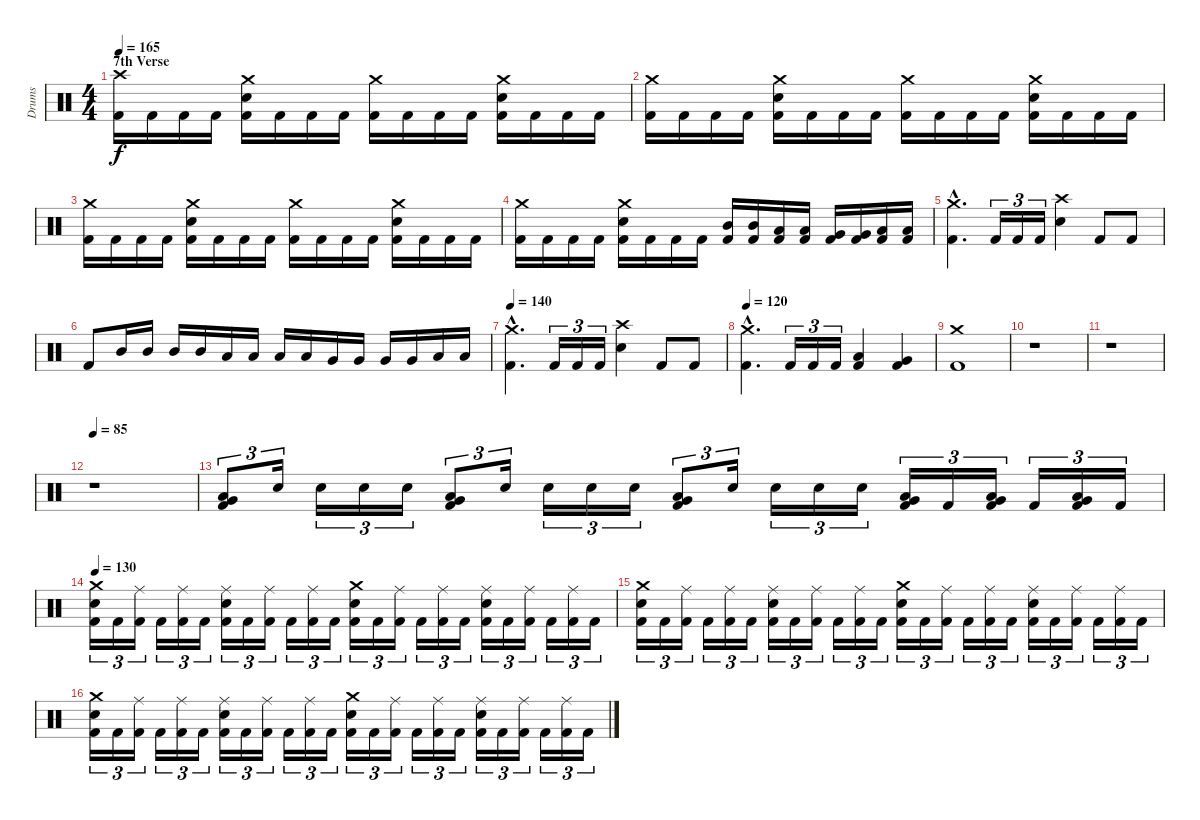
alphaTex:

\track ("Drums" "Drums") {instrument percussion}
\staff {score}
\articulation defaults
\ts (4 4)
\section ("" "7th Verse")
\tempo 165
\clef neutral
\ks c
("Kick (hit) 2" "Crash high (hit)").16{dy f} "Kick (hit) 2".16 "Kick (hit) 2".16 "Kick (hit) 2".16 ("Kick (hit) 2" "Electric Snare (hit)" "Crash medium (hit)").16 "Kick (hit) 2".16 "Kick (hit) 2".16 "Kick (hit) 2".16 ("Kick (hit) 2" "Crash medium (hit)").16 "Kick (hit) 2".16 "Kick (hit) 2".16 "Kick (hit) 2".16 ("Kick (hit) 2" "Electric Snare (hit)" "Crash medium (hit)").16 "Kick (hit) 2".16 "Kick (hit) 2".16 "Kick (hit) 2".16 |
("Kick (hit) 2" "Crash medium (hit)").16 "Kick (hit) 2".16 "Kick (hit) 2".16 "Kick (hit) 2".16 ("Kick (hit) 2" "Electric Snare (hit)" "Crash medium (hit)").16 "Kick (hit) 2".16 "Kick (hit) 2".16 "Kick (hit) 2".16 ("Kick (hit) 2" "Crash medium (hit)").16 "Kick (hit) 2".16 "Kick (hit) 2".16 "Kick (hit) 2".16 ("Kick (hit) 2" "Electric Snare (hit)" "Crash medium (hit)").16 "Kick (hit) 2".16 "Kick (hit) 2".16 "Kick (hit) 2".16 |
("Kick (hit) 2" "Crash medium (hit)").16 "Kick (hit) 2".16 "Kick (hit) 2".16 "Kick (hit) 2".16 ("Kick (hit) 2" "Electric Snare (hit)" "Crash medium (hit)").16 "Kick (hit) 2".16 "Kick (hit) 2".16 "Kick (hit) 2".16 ("Kick (hit) 2" "Crash medium (hit)").16 "Kick (hit) 2".16 "Kick (hit) 2".16 "Kick (hit) 2".16 ("Kick (hit) 2" "Electric Snare (hit)" "Crash medium (hit)").16 "Kick (hit) 2".16 "Kick (hit) 2".16 "Kick (hit) 2".16 |
("Kick (hit) 2" "Crash medium (hit)").16 "Kick (hit) 2".16 "Kick (hit) 2".16 "Kick (hit) 2".16 ("Kick (hit) 2" "Electric Snare (hit)" "Crash medium (hit)").16 "Kick (hit) 2".16 "Kick (hit) 2".16 "Kick (hit) 2".16 ("Kick (hit) 2" "Mid Tom (hit)").16 ("Kick (hit) 2" "Mid Tom (hit)").16 ("Kick (hit) 2" "Low Tom (hit)").16 ("Kick (hit) 2" "Low Tom (hit)").16 ("Kick (hit) 2" "Very Low Tom (hit)").16 ("Kick (hit) 2" "Very Low Tom (hit)").16 ("Kick (hit) 2" "Low Floor Tom (hit)").16 ("Kick (hit) 2" "Low Floor Tom (hit)").16 |
("Kick (hit) 2"{hac} "Crash medium (hit)"{hac}).4{d} "Kick (hit) 2".16{tu (3 2)} "Kick (hit) 2".16{tu (3 2)} "Kick (hit) 2".16{tu (3 2)} ("Electric Snare (hit)" "Crash high (hit)").4 "Kick (hit) 2".8 "Kick (hit) 2".8 |
"Kick (hit) 2".8 "Mid Tom (hit)".16 "Mid Tom (hit)".16 "Mid Tom (hit)".16 "Mid Tom (hit)".16 "Low Tom (hit)".16 "Low Tom (hit)".16 "Low Tom (hit)".16 "Low Tom (hit)".16 "Very Low Tom (hit)".16 "Very Low Tom (hit)".16 "Very Low Tom (hit)".16 "Very Low Tom (hit)".16 "Low Floor Tom (hit)".16 "Low Floor Tom (hit)".16 |
\tempo 140
("Kick (hit) 2"{hac} "Crash medium (hit)"{hac}).4{d} "Kick (hit) 2".16{tu (3 2)} "Kick (hit) 2".16{tu (3 2)} "Kick (hit) 2".16{tu (3 2)} ("Electric Snare (hit)" "Crash high (hit)").4 "Kick (hit) 2".8 "Kick (hit) 2".8 |
\tempo 120
("Kick (hit) 2"{hac} "Crash medium (hit)"{hac}).4{d} "Kick (hit) 2".16{tu (3 2)} "Kick (hit) 2".16{tu (3 2)} "Kick (hit) 2".16{tu (3 2)} ("Kick (hit) 2" "Low Tom (hit)").4 ("Kick (hit) 2" "Very Low Tom (hit)").4 |
\section ("" "")
("Kick (hit) 2" "Crash medium (hit)").1 |
r.1 |
r.1 |
\tempo 85
r.1 |
("Kick (hit) 2" "Low Tom (hit)" "Very Low Tom (hit)").8{tu (3 2)} "Electric Snare (hit)".16{tu (3 2)} "Electric Snare (hit)".16{tu (3 2)} "Electric Snare (hit)".16{tu (3 2)} "Electric Snare (hit)".16{tu (3 2)} ("Kick (hit) 2" "Low Tom (hit)" "Very Low Tom (hit)").8{tu (3 2)} "Electric Snare (hit)".16{tu (3 2)} "Electric Snare (hit)".16{tu (3 2)} "Electric Snare (hit)".16{tu (3 2)} "Electric Snare (hit)".16{tu (3 2)} ("Kick (hit) 2" "Low Tom (hit)" "Very Low Tom (hit)").8{tu (3 2)} "Electric Snare (hit)".16{tu (3 2)} "Electric Snare (hit)".16{tu (3 2)} "Electric Snare (hit)".16{tu (3 2)} "Electric Snare (hit)".16{tu (3 2)} ("Kick (hit) 2" "Low Tom (hit)" "Very Low Tom (hit)").16{tu (3 2)} "Kick (hit) 2".16{tu (3 2)} ("Kick (hit) 2" "Low Tom (hit)" "Very Low Tom (hit)").16{tu (3 2)} "Kick (hit) 2".16{tu (3 2)} ("Kick (hit) 2" "Low Tom (hit)" "Very Low Tom (hit)").16{tu (3 2)} "Kick (hit) 2".16{tu (3 2)} |
\tempo 130
("Kick (hit) 2" "Electric Snare (hit)" "Crash medium (hit)").16{tu (3 2)} "Kick (hit) 2".16{tu (3 2)} ("Kick (hit) 2" "Ride (middle)").16{tu (3 2)} "Kick (hit) 2".16{tu (3 2)} ("Kick (hit) 2" "Ride (middle)").16{tu (3 2)} "Kick (hit) 2".16{tu (3 2)} ("Kick (hit) 2" "Electric Snare (hit)" "Ride (middle)").16{tu (3 2)} "Kick (hit) 2".16{tu (3 2)} ("Kick (hit) 2" "Ride (middle)").16{tu (3 2)} "Kick (hit) 2".16{tu (3 2)} ("Kick (hit) 2" "Ride (middle)").16{tu (3 2)} "Kick (hit) 2".16{tu (3 2)} ("Kick (hit) 2" "Electric Snare (hit)" "Crash medium (hit)").16{tu (3 2)} "Kick (hit) 2".16{tu (3 2)} ("Kick (hit) 2" "Ride (middle)").16{tu (3 2)} "Kick (hit) 2".16{tu (3 2)} ("Kick (hit) 2" "Ride (middle)").16{tu (3 2)} "Kick (hit) 2".16{tu (3 2)} ("Kick (hit) 2" "Electric Snare (hit)" "Ride (middle)").16{tu (3 2)} "Kick (hit) 2".16{tu (3 2)} ("Kick (hit) 2" "Ride (middle)").16{tu (3 2)} "Kick (hit) 2".16{tu (3 2)} ("Kick (hit) 2" "Ride (middle)").16{tu (3 2)} "Kick (hit) 2".16{tu (3 2)} |
("Kick (hit) 2" "Electric Snare (hit)" "Crash medium (hit)").16{tu (3 2)} "Kick (hit) 2".16{tu (3 2)} ("Kick (hit) 2" "Ride (middle)").16{tu (3 2)} "Kick (hit) 2".16{tu (3 2)} ("Kick (hit) 2" "Ride (middle)").16{tu (3 2)} "Kick (hit) 2".16{tu (3 2)} ("Kick (hit) 2" "Electric Snare (hit)" "Ride (middle)").16{tu (3 2)} "Kick (hit) 2".16{tu (3 2)} ("Kick (hit) 2" "Ride (middle)").16{tu (3 2)} "Kick (hit) 2".16{tu (3 2)} ("Kick (hit) 2" "Ride (middle)").16{tu (3 2)} "Kick (hit) 2".16{tu (3 2)} ("Kick (hit) 2" "Electric Snare (hit)" "Crash medium (hit)").16{tu (3 2)} "Kick (hit) 2".16{tu (3 2)} ("Kick (hit) 2" "Ride (middle)").16{tu (3 2)} "Kick (hit) 2".16{tu (3 2)} ("Kick (hit) 2" "Ride (middle)").16{tu (3 2)} "Kick (hit) 2".16{tu (3 2)} ("Kick (hit) 2" "Electric Snare (hit)" "Ride (middle)").16{tu (3 2)} "Kick (hit) 2".16{tu (3 2)} ("Kick (hit) 2" "Ride (middle)").16{tu (3 2)} "Kick (hit) 2".16{tu (3 2)} ("Kick (hit) 2" "Ride (middle)").16{tu (3 2)} "Kick (hit) 2".16{tu (3 2)} |
("Kick (hit) 2" "Electric Snare (hit)" "Crash medium (hit)").16{tu (3 2)} "Kick (hit) 2".16{tu (3 2)} ("Kick (hit) 2" "Ride (middle)").16{tu (3 2)} "Kick (hit) 2".16{tu (3 2)} ("Kick (hit) 2" "Ride (middle)").16{tu (3 2)} "Kick (hit) 2".16{tu (3 2)} ("Kick (hit) 2" "Electric Snare (hit)" "Ride (middle)").16{tu (3 2)} "Kick (hit) 2".16{tu (3 2)} ("Kick (hit) 2" "Ride (middle)").16{tu (3 2)} "Kick (hit) 2".16{tu (3 2)} ("Kick (hit) 2" "Ride (middle)").16{tu (3 2)} "Kick (hit) 2".16{tu (3 2)} ("Kick (hit) 2" "Electric Snare (hit)" "Crash medium (hit)").16{tu (3 2)} "Kick (hit) 2".16{tu (3 2)} ("Kick (hit) 2" "Ride (middle)").16{tu (3 2)} "Kick (hit) 2".16{tu (3 2)} ("Kick (hit) 2" "Ride (middle)").16{tu (3 2)} "Kick (hit) 2".16{tu (3 2)} ("Kick (hit) 2" "Electric Snare (hit)" "Ride (middle)").16{tu (3 2)} "Kick (hit) 2".16{tu (3 2)} ("Kick (hit) 2" "Ride (middle)").16{tu (3 2)} "Kick (hit) 2".16{tu (3 2)} ("Kick (hit) 2" "Ride (middle)").16{tu (3 2)} "Kick (hit) 2".16{tu (3 2)}
